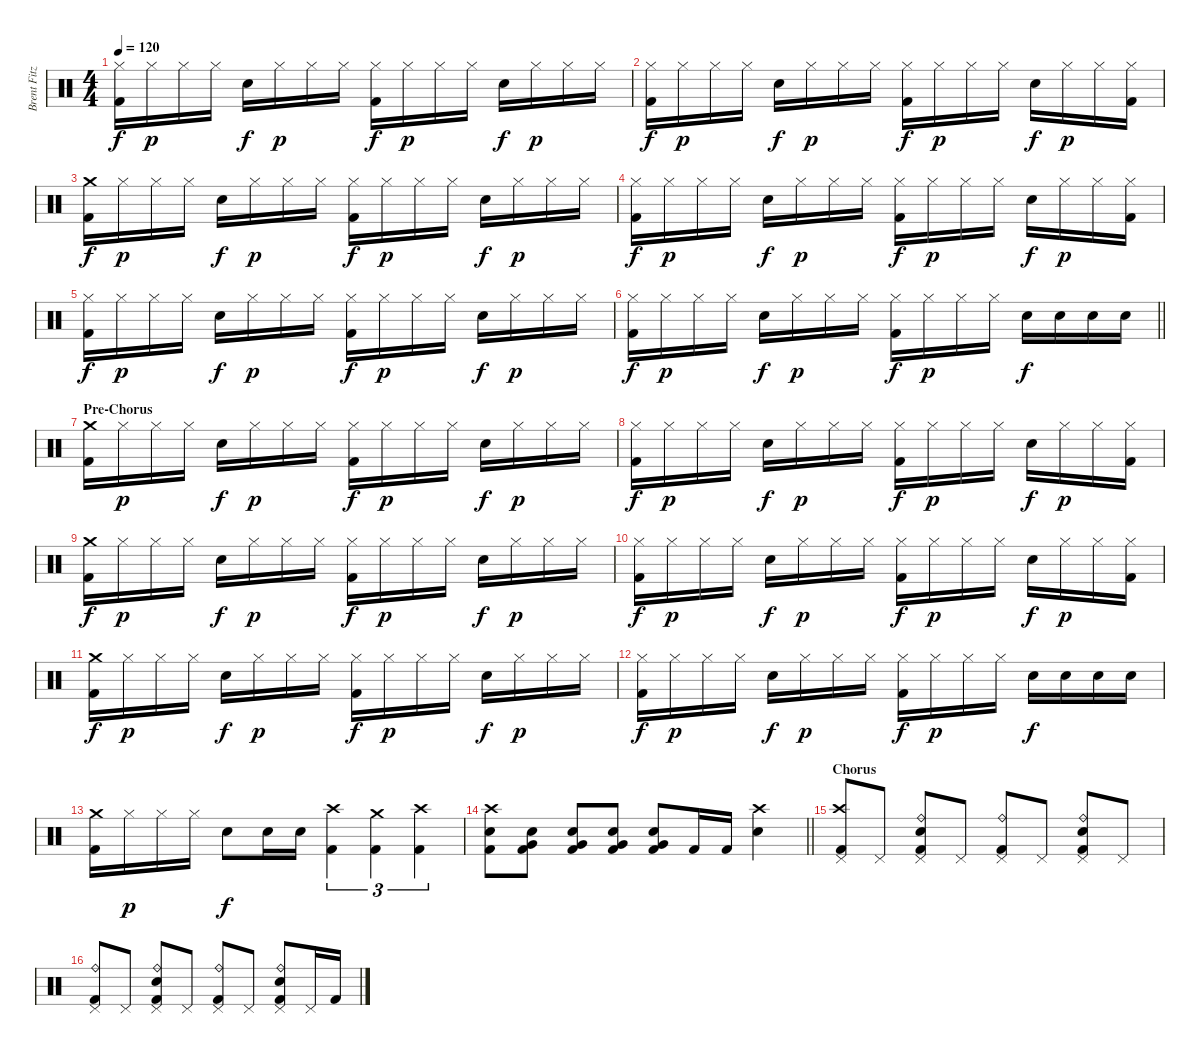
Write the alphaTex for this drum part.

\track ("Brent Fitz" "Brent Fitz") {instrument percussion}
\staff {score}
\articulation defaults
\ts (4 4)
\tempo 120
\clef neutral
\ks c
("Hi-Hat (closed)" "Kick (hit) 2").16{dy f} "Hi-Hat (closed)".16{dy p} "Hi-Hat (closed)".16 "Hi-Hat (closed)".16 "Electric Snare (hit)".16{dy f} "Hi-Hat (closed)".16{dy p} "Hi-Hat (closed)".16 "Hi-Hat (closed)".16 ("Hi-Hat (closed)" "Kick (hit) 2").16{dy f} "Hi-Hat (closed)".16{dy p} "Hi-Hat (closed)".16 "Hi-Hat (closed)".16 "Electric Snare (hit)".16{dy f} "Hi-Hat (closed)".16{dy p} "Hi-Hat (closed)".16 "Hi-Hat (closed)".16 |
("Hi-Hat (closed)" "Kick (hit) 2").16{dy f} "Hi-Hat (closed)".16{dy p} "Hi-Hat (closed)".16 "Hi-Hat (closed)".16 "Electric Snare (hit)".16{dy f} "Hi-Hat (closed)".16{dy p} "Hi-Hat (closed)".16 "Hi-Hat (closed)".16 ("Hi-Hat (closed)" "Kick (hit) 2").16{dy f} "Hi-Hat (closed)".16{dy p} "Hi-Hat (closed)".16 "Hi-Hat (closed)".16 "Electric Snare (hit)".16{dy f} "Hi-Hat (closed)".16{dy p} "Hi-Hat (closed)".16 ("Hi-Hat (closed)" "Kick (hit) 2").16 |
("Crash medium (hit)" "Kick (hit) 2").16{dy f} "Hi-Hat (closed)".16{dy p} "Hi-Hat (closed)".16 "Hi-Hat (closed)".16 "Electric Snare (hit)".16{dy f} "Hi-Hat (closed)".16{dy p} "Hi-Hat (closed)".16 "Hi-Hat (closed)".16 ("Hi-Hat (closed)" "Kick (hit) 2").16{dy f} "Hi-Hat (closed)".16{dy p} "Hi-Hat (closed)".16 "Hi-Hat (closed)".16 "Electric Snare (hit)".16{dy f} "Hi-Hat (closed)".16{dy p} "Hi-Hat (closed)".16 "Hi-Hat (closed)".16 |
("Hi-Hat (closed)" "Kick (hit) 2").16{dy f} "Hi-Hat (closed)".16{dy p} "Hi-Hat (closed)".16 "Hi-Hat (closed)".16 "Electric Snare (hit)".16{dy f} "Hi-Hat (closed)".16{dy p} "Hi-Hat (closed)".16 "Hi-Hat (closed)".16 ("Hi-Hat (closed)" "Kick (hit) 2").16{dy f} "Hi-Hat (closed)".16{dy p} "Hi-Hat (closed)".16 "Hi-Hat (closed)".16 "Electric Snare (hit)".16{dy f} "Hi-Hat (closed)".16{dy p} "Hi-Hat (closed)".16 ("Hi-Hat (closed)" "Kick (hit) 2").16 |
("Hi-Hat (closed)" "Kick (hit) 2").16{dy f} "Hi-Hat (closed)".16{dy p} "Hi-Hat (closed)".16 "Hi-Hat (closed)".16 "Electric Snare (hit)".16{dy f} "Hi-Hat (closed)".16{dy p} "Hi-Hat (closed)".16 "Hi-Hat (closed)".16 ("Hi-Hat (closed)" "Kick (hit) 2").16{dy f} "Hi-Hat (closed)".16{dy p} "Hi-Hat (closed)".16 "Hi-Hat (closed)".16 "Electric Snare (hit)".16{dy f} "Hi-Hat (closed)".16{dy p} "Hi-Hat (closed)".16 "Hi-Hat (closed)".16 |
\barLineRight lightlight
("Hi-Hat (closed)" "Kick (hit) 2").16{dy f} "Hi-Hat (closed)".16{dy p} "Hi-Hat (closed)".16 "Hi-Hat (closed)".16 "Electric Snare (hit)".16{dy f} "Hi-Hat (closed)".16{dy p} "Hi-Hat (closed)".16 "Hi-Hat (closed)".16 ("Hi-Hat (closed)" "Kick (hit) 2").16{dy f} "Hi-Hat (closed)".16{dy p} "Hi-Hat (closed)".16 "Hi-Hat (closed)".16 "Electric Snare (hit)".16{dy f} "Electric Snare (hit)".16 "Electric Snare (hit)".16 "Electric Snare (hit)".16 |
\section ("" "Pre-Chorus")
("Crash medium (hit)" "Kick (hit) 2").16 "Hi-Hat (closed)".16{dy p} "Hi-Hat (closed)".16 "Hi-Hat (closed)".16 "Electric Snare (hit)".16{dy f} "Hi-Hat (closed)".16{dy p} "Hi-Hat (closed)".16 "Hi-Hat (closed)".16 ("Hi-Hat (closed)" "Kick (hit) 2").16{dy f} "Hi-Hat (closed)".16{dy p} "Hi-Hat (closed)".16 "Hi-Hat (closed)".16 "Electric Snare (hit)".16{dy f} "Hi-Hat (closed)".16{dy p} "Hi-Hat (closed)".16 "Hi-Hat (closed)".16 |
("Hi-Hat (closed)" "Kick (hit) 2").16{dy f} "Hi-Hat (closed)".16{dy p} "Hi-Hat (closed)".16 "Hi-Hat (closed)".16 "Electric Snare (hit)".16{dy f} "Hi-Hat (closed)".16{dy p} "Hi-Hat (closed)".16 "Hi-Hat (closed)".16 ("Hi-Hat (closed)" "Kick (hit) 2").16{dy f} "Hi-Hat (closed)".16{dy p} "Hi-Hat (closed)".16 "Hi-Hat (closed)".16 "Electric Snare (hit)".16{dy f} "Hi-Hat (closed)".16{dy p} "Hi-Hat (closed)".16 ("Hi-Hat (closed)" "Kick (hit) 2").16 |
("Crash medium (hit)" "Kick (hit) 2").16{dy f} "Hi-Hat (closed)".16{dy p} "Hi-Hat (closed)".16 "Hi-Hat (closed)".16 "Electric Snare (hit)".16{dy f} "Hi-Hat (closed)".16{dy p} "Hi-Hat (closed)".16 "Hi-Hat (closed)".16 ("Hi-Hat (closed)" "Kick (hit) 2").16{dy f} "Hi-Hat (closed)".16{dy p} "Hi-Hat (closed)".16 "Hi-Hat (closed)".16 "Electric Snare (hit)".16{dy f} "Hi-Hat (closed)".16{dy p} "Hi-Hat (closed)".16 "Hi-Hat (closed)".16 |
("Hi-Hat (closed)" "Kick (hit) 2").16{dy f} "Hi-Hat (closed)".16{dy p} "Hi-Hat (closed)".16 "Hi-Hat (closed)".16 "Electric Snare (hit)".16{dy f} "Hi-Hat (closed)".16{dy p} "Hi-Hat (closed)".16 "Hi-Hat (closed)".16 ("Hi-Hat (closed)" "Kick (hit) 2").16{dy f} "Hi-Hat (closed)".16{dy p} "Hi-Hat (closed)".16 "Hi-Hat (closed)".16 "Electric Snare (hit)".16{dy f} "Hi-Hat (closed)".16{dy p} "Hi-Hat (closed)".16 ("Hi-Hat (closed)" "Kick (hit) 2").16 |
("Crash medium (hit)" "Kick (hit) 2").16{dy f} "Hi-Hat (closed)".16{dy p} "Hi-Hat (closed)".16 "Hi-Hat (closed)".16 "Electric Snare (hit)".16{dy f} "Hi-Hat (closed)".16{dy p} "Hi-Hat (closed)".16 "Hi-Hat (closed)".16 ("Hi-Hat (closed)" "Kick (hit) 2").16{dy f} "Hi-Hat (closed)".16{dy p} "Hi-Hat (closed)".16 "Hi-Hat (closed)".16 "Electric Snare (hit)".16{dy f} "Hi-Hat (closed)".16{dy p} "Hi-Hat (closed)".16 "Hi-Hat (closed)".16 |
("Hi-Hat (closed)" "Kick (hit) 2").16{dy f} "Hi-Hat (closed)".16{dy p} "Hi-Hat (closed)".16 "Hi-Hat (closed)".16 "Electric Snare (hit)".16{dy f} "Hi-Hat (closed)".16{dy p} "Hi-Hat (closed)".16 "Hi-Hat (closed)".16 ("Hi-Hat (closed)" "Kick (hit) 2").16{dy f} "Hi-Hat (closed)".16{dy p} "Hi-Hat (closed)".16 "Hi-Hat (closed)".16 "Electric Snare (hit)".16{dy f} "Electric Snare (hit)".16 "Electric Snare (hit)".16 "Electric Snare (hit)".16 |
("Crash medium (hit)" "Kick (hit) 2").16 "Hi-Hat (closed)".16{dy p} "Hi-Hat (closed)".16 "Hi-Hat (closed)".16 "Electric Snare (hit)".8{dy f} "Electric Snare (hit)".16 "Electric Snare (hit)".16 ("Crash high (hit)" "Kick (hit) 2").4{tu (3 2)} ("Crash medium (hit)" "Kick (hit) 2").4{tu (3 2)} ("Crash high (hit)" "Kick (hit) 2").4{tu (3 2)} |
\barLineRight lightlight
("Crash high (hit)" "Electric Snare (hit)" "Kick (hit) 2").8 ("Electric Snare (hit)" "Very Low Tom (hit)" "Kick (hit) 2").8 ("Electric Snare (hit)" "Very Low Tom (hit)" "Kick (hit) 2").8 ("Electric Snare (hit)" "Very Low Tom (hit)" "Kick (hit) 2").8 ("Electric Snare (hit)" "Very Low Tom (hit)" "Kick (hit) 2").8 "Kick (hit) 2".16 "Kick (hit) 2".16 ("Crash high (hit)" "Electric Snare (hit)").4 |
\section ("" "Chorus")
("Crash high (hit)" "Pedal Hi-Hat (hit)" "Kick (hit) 2").8 "Pedal Hi-Hat (hit)".8 ("Ride (bell)" "Electric Snare (hit)" "Pedal Hi-Hat (hit)" "Kick (hit) 2").8 "Pedal Hi-Hat (hit)".8 ("Ride (bell)" "Pedal Hi-Hat (hit)" "Kick (hit) 2").8 "Pedal Hi-Hat (hit)".8 ("Ride (bell)" "Electric Snare (hit)" "Pedal Hi-Hat (hit)" "Kick (hit) 2").8 "Pedal Hi-Hat (hit)".8 |
("Ride (bell)" "Pedal Hi-Hat (hit)" "Kick (hit) 2").8 "Pedal Hi-Hat (hit)".8 ("Ride (bell)" "Electric Snare (hit)" "Pedal Hi-Hat (hit)" "Kick (hit) 2").8 "Pedal Hi-Hat (hit)".8 ("Ride (bell)" "Pedal Hi-Hat (hit)" "Kick (hit) 2").8 "Pedal Hi-Hat (hit)".8 ("Ride (bell)" "Electric Snare (hit)" "Pedal Hi-Hat (hit)" "Kick (hit) 2").8 "Pedal Hi-Hat (hit)".16 "Kick (hit) 2".16
